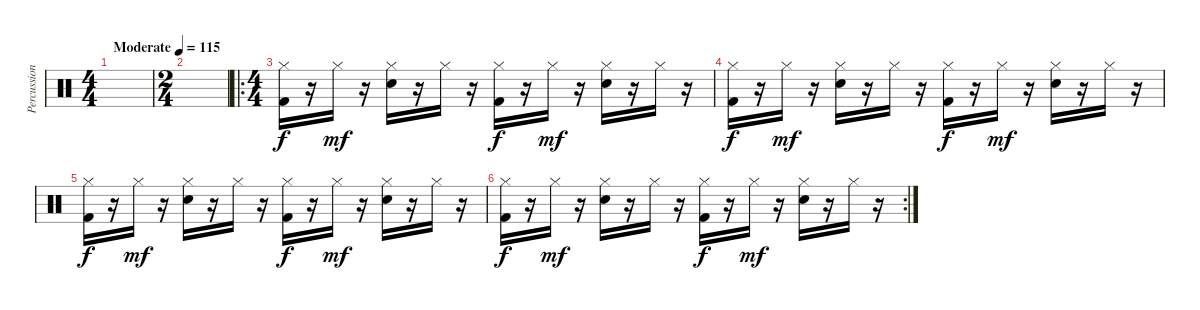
\track ("Percussion" "Percussion") {instrument percussion}
\staff {score}
\articulation defaults
\ts (4 4)
\tempo (115 "Moderate")
\clef neutral
\ks c
|
\ts (2 4)
|
\ro
\ts (4 4)
("Hi-Hat (closed)" "Kick (hit) 2").16 r.16 "Hi-Hat (closed)".16{dy mf} r.16 ("Hi-Hat (closed)" "Electric Snare (hit)").16 r.16 "Hi-Hat (closed)".16 r.16 ("Hi-Hat (closed)" "Kick (hit) 2").16{dy f} r.16 "Hi-Hat (closed)".16{dy mf} r.16 ("Hi-Hat (closed)" "Electric Snare (hit)").16 r.16 "Hi-Hat (closed)".16 r.16 |
("Hi-Hat (closed)" "Kick (hit) 2").16{dy f} r.16 "Hi-Hat (closed)".16{dy mf} r.16 ("Hi-Hat (closed)" "Electric Snare (hit)").16 r.16 "Hi-Hat (closed)".16 r.16 ("Hi-Hat (closed)" "Kick (hit) 2").16{dy f} r.16 "Hi-Hat (closed)".16{dy mf} r.16 ("Hi-Hat (closed)" "Electric Snare (hit)").16 r.16 "Hi-Hat (closed)".16 r.16 |
("Hi-Hat (closed)" "Kick (hit) 2").16{dy f} r.16 "Hi-Hat (closed)".16{dy mf} r.16 ("Hi-Hat (closed)" "Electric Snare (hit)").16 r.16 "Hi-Hat (closed)".16 r.16 ("Hi-Hat (closed)" "Kick (hit) 2").16{dy f} r.16 "Hi-Hat (closed)".16{dy mf} r.16 ("Hi-Hat (closed)" "Electric Snare (hit)").16 r.16 "Hi-Hat (closed)".16 r.16 |
\rc 2
("Hi-Hat (closed)" "Kick (hit) 2").16{dy f} r.16 "Hi-Hat (closed)".16{dy mf} r.16 ("Hi-Hat (closed)" "Electric Snare (hit)").16 r.16 "Hi-Hat (closed)".16 r.16 ("Hi-Hat (closed)" "Kick (hit) 2").16{dy f} r.16 "Hi-Hat (closed)".16{dy mf} r.16 ("Hi-Hat (closed)" "Electric Snare (hit)").16 r.16 "Hi-Hat (closed)".16 r.16
